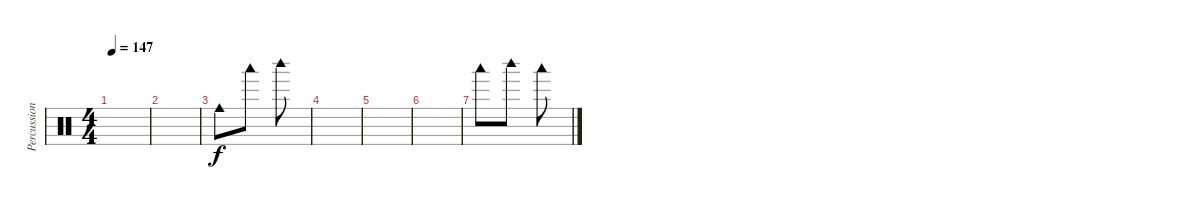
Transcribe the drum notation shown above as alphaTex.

\track ("Percussions" "Percussion") {instrument percussion}
\staff {score}
\articulation defaults
\ts (4 4)
\tempo 147
\clef neutral
\ks c
|
|
"Cowbell medium (hit)".8 "Woodblock low (hit)".8 "Woodblock high (hit)".8 |
|
|
|
"Woodblock low (hit)".8 "Woodblock high (hit)".8 "Woodblock low (hit)".8
